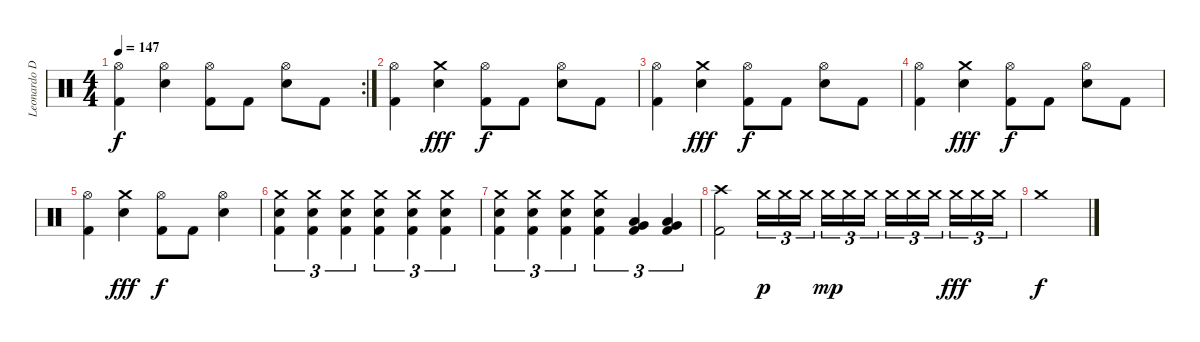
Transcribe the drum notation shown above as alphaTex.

\track ("Leonardo De Cecco" "Leonardo D") {instrument percussion}
\staff {score}
\articulation defaults
\rc 2
\ts (4 4)
\tempo 147
\clef neutral
\ks c
("Hi-Hat (open)" "Kick (hit) 2").4{dy f} ("Hi-Hat (open)" "Electric Snare (hit)").4 ("Hi-Hat (open)" "Kick (hit) 2").8 "Kick (hit) 2".8 ("Hi-Hat (open)" "Electric Snare (hit)").8 "Kick (hit) 2".8 |
("Hi-Hat (open)" "Kick (hit) 2").4 ("Crash medium (hit)" "Electric Snare (hit)").4{dy fff} ("Hi-Hat (open)" "Kick (hit) 2").8{dy f} "Kick (hit) 2".8 ("Hi-Hat (open)" "Electric Snare (hit)").8 "Kick (hit) 2".8 |
("Hi-Hat (open)" "Kick (hit) 2").4 ("Crash medium (hit)" "Electric Snare (hit)").4{dy fff} ("Hi-Hat (open)" "Kick (hit) 2").8{dy f} "Kick (hit) 2".8 ("Hi-Hat (open)" "Electric Snare (hit)").8 "Kick (hit) 2".8 |
("Hi-Hat (open)" "Kick (hit) 2").4 ("Crash medium (hit)" "Electric Snare (hit)").4{dy fff} ("Hi-Hat (open)" "Kick (hit) 2").8{dy f} "Kick (hit) 2".8 ("Hi-Hat (open)" "Electric Snare (hit)").8 "Kick (hit) 2".8 |
("Hi-Hat (open)" "Kick (hit) 2").4 ("Crash medium (hit)" "Electric Snare (hit)").4{dy fff} ("Hi-Hat (open)" "Kick (hit) 2").8{dy f} "Kick (hit) 2".8 ("Hi-Hat (open)" "Electric Snare (hit)").4 |
("Crash medium (hit)" "Electric Snare (hit)" "Kick (hit) 2").4{tu (3 2)} ("Crash medium (hit)" "Electric Snare (hit)" "Kick (hit) 2").4{tu (3 2)} ("Crash medium (hit)" "Electric Snare (hit)" "Kick (hit) 2").4{tu (3 2)} ("Crash medium (hit)" "Electric Snare (hit)" "Kick (hit) 2").4{tu (3 2)} ("Crash medium (hit)" "Electric Snare (hit)" "Kick (hit) 2").4{tu (3 2)} ("Crash medium (hit)" "Electric Snare (hit)" "Kick (hit) 2").4{tu (3 2)} |
("Crash medium (hit)" "Electric Snare (hit)" "Kick (hit) 2").4{tu (3 2)} ("Crash medium (hit)" "Electric Snare (hit)" "Kick (hit) 2").4{tu (3 2)} ("Crash medium (hit)" "Electric Snare (hit)" "Kick (hit) 2").4{tu (3 2)} ("Crash medium (hit)" "Electric Snare (hit)" "Kick (hit) 2").4{tu (3 2)} ("Low Tom (hit)" "Very Low Tom (hit)" "Kick (hit) 2").4{tu (3 2)} ("Low Tom (hit)" "Very Low Tom (hit)" "Kick (hit) 2").4{tu (3 2)} |
("Crash high (hit)" "Kick (hit) 2").2 "Crash medium (hit)".16{tu (3 2) dy p} "Crash medium (hit)".16{tu (3 2)} "Crash medium (hit)".16{tu (3 2) beam splitsecondary} "Crash medium (hit)".16{tu (3 2) dy mp} "Crash medium (hit)".16{tu (3 2)} "Crash medium (hit)".16{tu (3 2)} "Crash medium (hit)".16{tu (3 2)} "Crash medium (hit)".16{tu (3 2)} "Crash medium (hit)".16{tu (3 2) beam splitsecondary} "Crash medium (hit)".16{tu (3 2) dy fff} "Crash medium (hit)".16{tu (3 2)} "Crash medium (hit)".16{tu (3 2)} |
"Crash medium (hit)".1{dy f}
